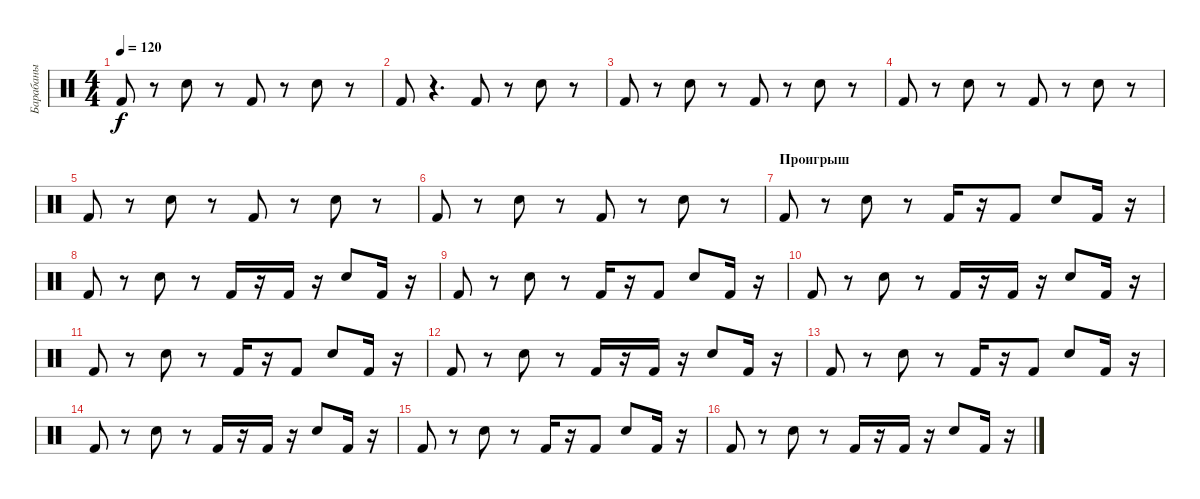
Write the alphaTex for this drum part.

\track ("Барабаны" "Барабаны") {instrument percussion}
\staff {score}
\articulation defaults
\ts (4 4)
\tempo 120
\clef neutral
\ks c "Kick (hit) 2".8{dy f}
r.8 "Electric Snare (hit)".8 r.8 "Kick (hit) 2".8 r.8 "Electric Snare (hit)".8 r.8 |
"Kick (hit) 2".8 r.4{d} "Kick (hit) 2".8 r.8 "Electric Snare (hit)".8 r.8 |
"Kick (hit) 2".8 r.8 "Electric Snare (hit)".8 r.8 "Kick (hit) 2".8 r.8 "Electric Snare (hit)".8 r.8 |
"Kick (hit) 2".8 r.8 "Electric Snare (hit)".8 r.8 "Kick (hit) 2".8 r.8 "Electric Snare (hit)".8 r.8 |
"Kick (hit) 2".8 r.8 "Electric Snare (hit)".8 r.8 "Kick (hit) 2".8 r.8 "Electric Snare (hit)".8 r.8 |
"Kick (hit) 2".8 r.8 "Electric Snare (hit)".8 r.8 "Kick (hit) 2".8 r.8 "Electric Snare (hit)".8 r.8 |
\section ("" "Проигрыш")
"Kick (hit) 2".8 r.8 "Electric Snare (hit)".8 r.8 "Kick (hit) 2".16 r.16 "Kick (hit) 2".8 "Electric Snare (hit)".8 "Kick (hit) 2".16 r.16 |
"Kick (hit) 2".8 r.8 "Electric Snare (hit)".8 r.8 "Kick (hit) 2".16 r.16 "Kick (hit) 2".16 r.16 "Electric Snare (hit)".8 "Kick (hit) 2".16 r.16 |
"Kick (hit) 2".8 r.8 "Electric Snare (hit)".8 r.8 "Kick (hit) 2".16 r.16 "Kick (hit) 2".8 "Electric Snare (hit)".8 "Kick (hit) 2".16 r.16 |
"Kick (hit) 2".8 r.8 "Electric Snare (hit)".8 r.8 "Kick (hit) 2".16 r.16 "Kick (hit) 2".16 r.16 "Electric Snare (hit)".8 "Kick (hit) 2".16 r.16 |
"Kick (hit) 2".8 r.8 "Electric Snare (hit)".8 r.8 "Kick (hit) 2".16 r.16 "Kick (hit) 2".8 "Electric Snare (hit)".8 "Kick (hit) 2".16 r.16 |
"Kick (hit) 2".8 r.8 "Electric Snare (hit)".8 r.8 "Kick (hit) 2".16 r.16 "Kick (hit) 2".16 r.16 "Electric Snare (hit)".8 "Kick (hit) 2".16 r.16 |
"Kick (hit) 2".8 r.8 "Electric Snare (hit)".8 r.8 "Kick (hit) 2".16 r.16 "Kick (hit) 2".8 "Electric Snare (hit)".8 "Kick (hit) 2".16 r.16 |
"Kick (hit) 2".8 r.8 "Electric Snare (hit)".8 r.8 "Kick (hit) 2".16 r.16 "Kick (hit) 2".16 r.16 "Electric Snare (hit)".8 "Kick (hit) 2".16 r.16 |
"Kick (hit) 2".8 r.8 "Electric Snare (hit)".8 r.8 "Kick (hit) 2".16 r.16 "Kick (hit) 2".8 "Electric Snare (hit)".8 "Kick (hit) 2".16 r.16 |
"Kick (hit) 2".8 r.8 "Electric Snare (hit)".8 r.8 "Kick (hit) 2".16 r.16 "Kick (hit) 2".16 r.16 "Electric Snare (hit)".8 "Kick (hit) 2".16 r.16
